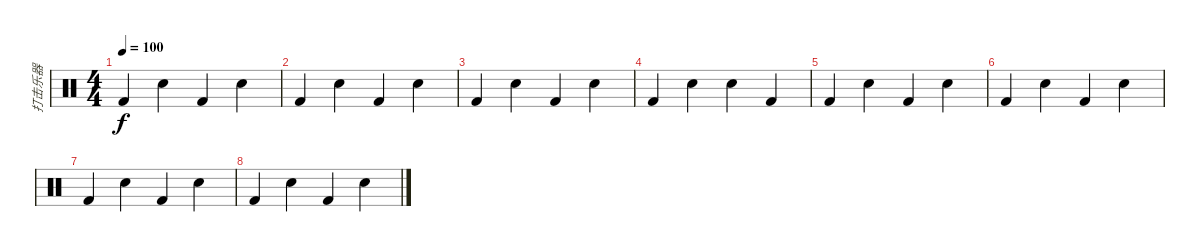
\track ("打击乐器" "打击乐器") {instrument percussion}
\staff {score}
\articulation defaults
\ts (4 4)
\tempo 100
\clef neutral
\ks c "Kick (hit) 2".4{dy f} "Snare (hit) 2".4 "Kick (hit) 2".4 "Snare (hit) 2".4
|
"Kick (hit) 2".4 "Snare (hit) 2".4 "Kick (hit) 2".4 "Snare (hit) 2".4 |
"Kick (hit) 2".4 "Snare (hit) 2".4 "Kick (hit) 2".4 "Snare (hit) 2".4 |
"Kick (hit) 2".4 "Snare (hit) 2".4 "Snare (hit) 2".4 "Kick (hit) 2".4 |
"Kick (hit) 2".4 "Snare (hit) 2".4 "Kick (hit) 2".4 "Snare (hit) 2".4 |
"Kick (hit) 2".4 "Snare (hit) 2".4 "Kick (hit) 2".4 "Snare (hit) 2".4 |
"Kick (hit) 2".4 "Snare (hit) 2".4 "Kick (hit) 2".4 "Snare (hit) 2".4 |
"Kick (hit) 2".4 "Snare (hit) 2".4 "Kick (hit) 2".4 "Snare (hit) 2".4
